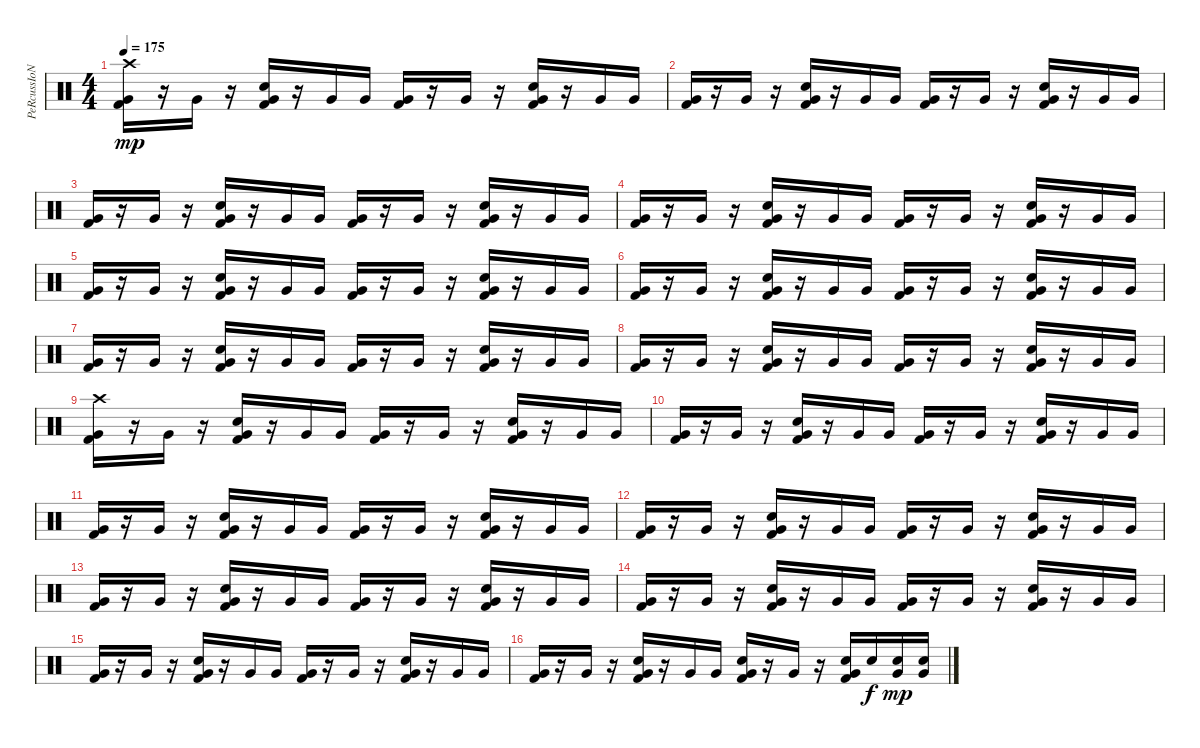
\track ("PeRcussIoNs" "PeRcussIoN") {instrument percussion}
\staff {score}
\articulation defaults
\ts (4 4)
\tempo 175
\clef neutral
\ks c
("Crash high (hit)" "Very Low Tom (hit)" "Kick (hit) 2").16{dy mp} r.16 "Very Low Tom (hit)".16 r.16 ("Very Low Tom (hit)" "Electric Snare (hit)" "Kick (hit) 2").16 r.16 "Very Low Tom (hit)".16 "Very Low Tom (hit)".16 ("Very Low Tom (hit)" "Kick (hit) 2").16 r.16 "Very Low Tom (hit)".16 r.16 ("Very Low Tom (hit)" "Electric Snare (hit)" "Kick (hit) 2").16 r.16 "Very Low Tom (hit)".16 "Very Low Tom (hit)".16 |
("Very Low Tom (hit)" "Kick (hit) 2").16 r.16 "Very Low Tom (hit)".16 r.16 ("Very Low Tom (hit)" "Electric Snare (hit)" "Kick (hit) 2").16 r.16 "Very Low Tom (hit)".16 "Very Low Tom (hit)".16 ("Very Low Tom (hit)" "Kick (hit) 2").16 r.16 "Very Low Tom (hit)".16 r.16 ("Very Low Tom (hit)" "Electric Snare (hit)" "Kick (hit) 2").16 r.16 "Very Low Tom (hit)".16 "Very Low Tom (hit)".16 |
("Very Low Tom (hit)" "Kick (hit) 2").16 r.16 "Very Low Tom (hit)".16 r.16 ("Very Low Tom (hit)" "Electric Snare (hit)" "Kick (hit) 2").16 r.16 "Very Low Tom (hit)".16 "Very Low Tom (hit)".16 ("Very Low Tom (hit)" "Kick (hit) 2").16 r.16 "Very Low Tom (hit)".16 r.16 ("Very Low Tom (hit)" "Electric Snare (hit)" "Kick (hit) 2").16 r.16 "Very Low Tom (hit)".16 "Very Low Tom (hit)".16 |
("Very Low Tom (hit)" "Kick (hit) 2").16 r.16 "Very Low Tom (hit)".16 r.16 ("Very Low Tom (hit)" "Electric Snare (hit)" "Kick (hit) 2").16 r.16 "Very Low Tom (hit)".16 "Very Low Tom (hit)".16 ("Very Low Tom (hit)" "Kick (hit) 2").16 r.16 "Very Low Tom (hit)".16 r.16 ("Very Low Tom (hit)" "Electric Snare (hit)" "Kick (hit) 2").16 r.16 "Very Low Tom (hit)".16 "Very Low Tom (hit)".16 |
("Very Low Tom (hit)" "Kick (hit) 2").16 r.16 "Very Low Tom (hit)".16 r.16 ("Very Low Tom (hit)" "Electric Snare (hit)" "Kick (hit) 2").16 r.16 "Very Low Tom (hit)".16 "Very Low Tom (hit)".16 ("Very Low Tom (hit)" "Kick (hit) 2").16 r.16 "Very Low Tom (hit)".16 r.16 ("Very Low Tom (hit)" "Electric Snare (hit)" "Kick (hit) 2").16 r.16 "Very Low Tom (hit)".16 "Very Low Tom (hit)".16 |
("Very Low Tom (hit)" "Kick (hit) 2").16 r.16 "Very Low Tom (hit)".16 r.16 ("Very Low Tom (hit)" "Electric Snare (hit)" "Kick (hit) 2").16 r.16 "Very Low Tom (hit)".16 "Very Low Tom (hit)".16 ("Very Low Tom (hit)" "Kick (hit) 2").16 r.16 "Very Low Tom (hit)".16 r.16 ("Very Low Tom (hit)" "Electric Snare (hit)" "Kick (hit) 2").16 r.16 "Very Low Tom (hit)".16 "Very Low Tom (hit)".16 |
("Very Low Tom (hit)" "Kick (hit) 2").16 r.16 "Very Low Tom (hit)".16 r.16 ("Very Low Tom (hit)" "Electric Snare (hit)" "Kick (hit) 2").16 r.16 "Very Low Tom (hit)".16 "Very Low Tom (hit)".16 ("Very Low Tom (hit)" "Kick (hit) 2").16 r.16 "Very Low Tom (hit)".16 r.16 ("Very Low Tom (hit)" "Electric Snare (hit)" "Kick (hit) 2").16 r.16 "Very Low Tom (hit)".16 "Very Low Tom (hit)".16 |
("Very Low Tom (hit)" "Kick (hit) 2").16 r.16 "Very Low Tom (hit)".16 r.16 ("Very Low Tom (hit)" "Electric Snare (hit)" "Kick (hit) 2").16 r.16 "Very Low Tom (hit)".16 "Very Low Tom (hit)".16 ("Very Low Tom (hit)" "Kick (hit) 2").16 r.16 "Very Low Tom (hit)".16 r.16 ("Very Low Tom (hit)" "Electric Snare (hit)" "Kick (hit) 2").16 r.16 "Very Low Tom (hit)".16 "Very Low Tom (hit)".16 |
("Crash high (hit)" "Kick (hit) 2" "Very Low Tom (hit)").16 r.16 "Very Low Tom (hit)".16 r.16 ("Electric Snare (hit)" "Kick (hit) 2" "Very Low Tom (hit)").16 r.16 "Very Low Tom (hit)".16 "Very Low Tom (hit)".16 ("Kick (hit) 2" "Very Low Tom (hit)").16 r.16 "Very Low Tom (hit)".16 r.16 ("Electric Snare (hit)" "Kick (hit) 2" "Very Low Tom (hit)").16 r.16 "Very Low Tom (hit)".16 "Very Low Tom (hit)".16 |
("Kick (hit) 2" "Very Low Tom (hit)").16 r.16 "Very Low Tom (hit)".16 r.16 ("Electric Snare (hit)" "Kick (hit) 2" "Very Low Tom (hit)").16 r.16 "Very Low Tom (hit)".16 "Very Low Tom (hit)".16 ("Kick (hit) 2" "Very Low Tom (hit)").16 r.16 "Very Low Tom (hit)".16 r.16 ("Electric Snare (hit)" "Kick (hit) 2" "Very Low Tom (hit)").16 r.16 "Very Low Tom (hit)".16 "Very Low Tom (hit)".16 |
("Kick (hit) 2" "Very Low Tom (hit)").16 r.16 "Very Low Tom (hit)".16 r.16 ("Electric Snare (hit)" "Kick (hit) 2" "Very Low Tom (hit)").16 r.16 "Very Low Tom (hit)".16 "Very Low Tom (hit)".16 ("Kick (hit) 2" "Very Low Tom (hit)").16 r.16 "Very Low Tom (hit)".16 r.16 ("Electric Snare (hit)" "Kick (hit) 2" "Very Low Tom (hit)").16 r.16 "Very Low Tom (hit)".16 "Very Low Tom (hit)".16 |
("Kick (hit) 2" "Very Low Tom (hit)").16 r.16 "Very Low Tom (hit)".16 r.16 ("Electric Snare (hit)" "Kick (hit) 2" "Very Low Tom (hit)").16 r.16 "Very Low Tom (hit)".16 "Very Low Tom (hit)".16 ("Kick (hit) 2" "Very Low Tom (hit)").16 r.16 "Very Low Tom (hit)".16 r.16 ("Electric Snare (hit)" "Kick (hit) 2" "Very Low Tom (hit)").16 r.16 "Very Low Tom (hit)".16 "Very Low Tom (hit)".16 |
("Very Low Tom (hit)" "Kick (hit) 2").16 r.16 "Very Low Tom (hit)".16 r.16 ("Very Low Tom (hit)" "Electric Snare (hit)" "Kick (hit) 2").16 r.16 "Very Low Tom (hit)".16 "Very Low Tom (hit)".16 ("Very Low Tom (hit)" "Kick (hit) 2").16 r.16 "Very Low Tom (hit)".16 r.16 ("Very Low Tom (hit)" "Electric Snare (hit)" "Kick (hit) 2").16 r.16 "Very Low Tom (hit)".16 "Very Low Tom (hit)".16 |
("Kick (hit) 2" "Very Low Tom (hit)").16 r.16 "Very Low Tom (hit)".16 r.16 ("Electric Snare (hit)" "Kick (hit) 2" "Very Low Tom (hit)").16 r.16 "Very Low Tom (hit)".16 "Very Low Tom (hit)".16 ("Kick (hit) 2" "Very Low Tom (hit)").16 r.16 "Very Low Tom (hit)".16 r.16 ("Electric Snare (hit)" "Kick (hit) 2" "Very Low Tom (hit)").16 r.16 "Very Low Tom (hit)".16 "Very Low Tom (hit)".16 |
("Very Low Tom (hit)" "Kick (hit) 2").16 r.16 "Very Low Tom (hit)".16 r.16 ("Very Low Tom (hit)" "Electric Snare (hit)" "Kick (hit) 2").16 r.16 "Very Low Tom (hit)".16 "Very Low Tom (hit)".16 ("Very Low Tom (hit)" "Kick (hit) 2").16 r.16 "Very Low Tom (hit)".16 r.16 ("Very Low Tom (hit)" "Electric Snare (hit)" "Kick (hit) 2").16 r.16 "Very Low Tom (hit)".16 "Very Low Tom (hit)".16 |
("Kick (hit) 2" "Very Low Tom (hit)").16 r.16 "Very Low Tom (hit)".16 r.16 ("Electric Snare (hit)" "Kick (hit) 2" "Very Low Tom (hit)").16 r.16 "Very Low Tom (hit)".16 "Very Low Tom (hit)".16 ("Kick (hit) 2" "Electric Snare (hit)" "Very Low Tom (hit)").16 r.16 "Very Low Tom (hit)".16 r.16 ("Electric Snare (hit)" "Kick (hit) 2" "Very Low Tom (hit)").16 "Electric Snare (hit)".16{dy f} ("Electric Snare (hit)" "Very Low Tom (hit)").16{dy mp} ("Electric Snare (hit)" "Very Low Tom (hit)").16
